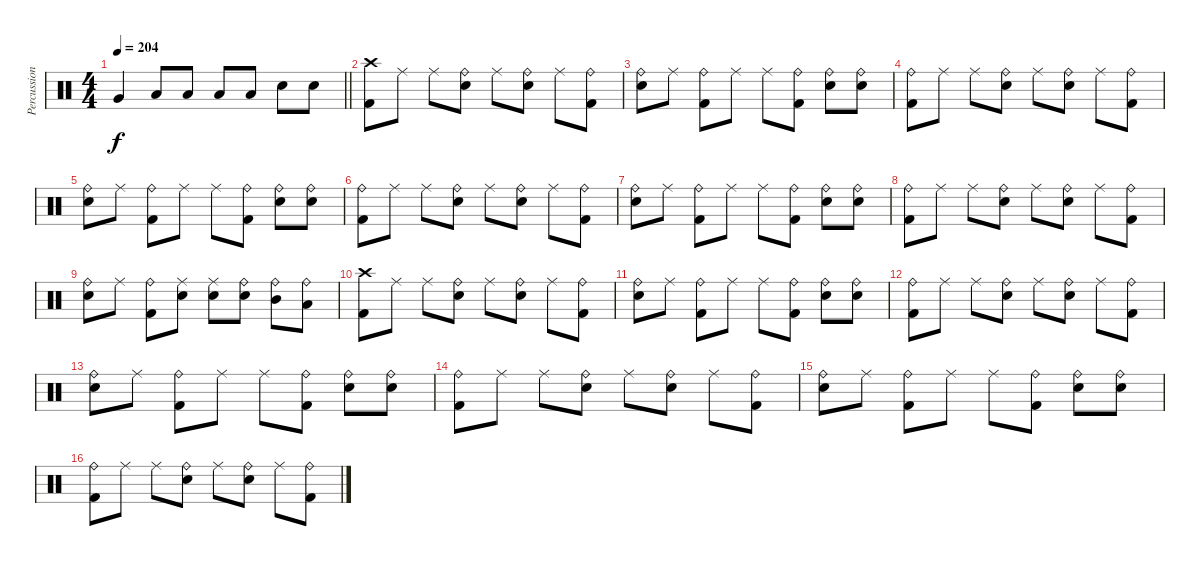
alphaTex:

\track ("Percussion" "Percussion") {instrument percussion}
\staff {score}
\articulation defaults
\ts (4 4)
\tempo 204
\clef neutral
\barLineRight lightlight
\ks c "Very Low Tom (hit)".4{dy f} "Low Floor Tom (hit)".8 "Low Floor Tom (hit)".8 "Low Floor Tom (hit)".8 "Low Floor Tom (hit)".8 "Snare (hit) 2".8 "Snare (hit) 2".8
|
("Crash high (hit)" "Kick (hit) 2").8 "Ride (middle)".8 "Ride (middle)".8 ("Ride (bell)" "Snare (hit) 2").8 "Ride (middle)".8 ("Ride (bell)" "Snare (hit) 2").8 "Ride (middle)".8 ("Ride (bell)" "Kick (hit) 2").8 |
("Ride (bell)" "Snare (hit) 2").8 "Ride (middle)".8 ("Ride (bell)" "Kick (hit) 2").8 "Ride (middle)".8 "Ride (middle)".8 ("Ride (bell)" "Kick (hit) 2").8 ("Ride (bell)" "Snare (hit) 2").8 ("Ride (bell)" "Snare (hit) 2").8 |
("Ride (bell)" "Kick (hit) 2").8 "Ride (middle)".8 "Ride (middle)".8 ("Ride (bell)" "Snare (hit) 2").8 "Ride (middle)".8 ("Ride (bell)" "Snare (hit) 2").8 "Ride (middle)".8 ("Ride (bell)" "Kick (hit) 2").8 |
("Ride (bell)" "Snare (hit) 2").8 "Ride (middle)".8 ("Ride (bell)" "Kick (hit) 2").8 "Ride (middle)".8 "Ride (middle)".8 ("Ride (bell)" "Kick (hit) 2").8 ("Ride (bell)" "Snare (hit) 2").8 ("Ride (bell)" "Snare (hit) 2").8 |
("Ride (bell)" "Kick (hit) 2").8 "Ride (middle)".8 "Ride (middle)".8 ("Ride (bell)" "Snare (hit) 2").8 "Ride (middle)".8 ("Ride (bell)" "Snare (hit) 2").8 "Ride (middle)".8 ("Ride (bell)" "Kick (hit) 2").8 |
("Ride (bell)" "Snare (hit) 2").8 "Ride (middle)".8 ("Ride (bell)" "Kick (hit) 2").8 "Ride (middle)".8 "Ride (middle)".8 ("Ride (bell)" "Kick (hit) 2").8 ("Ride (bell)" "Snare (hit) 2").8 ("Ride (bell)" "Snare (hit) 2").8 |
("Ride (bell)" "Kick (hit) 2").8 "Ride (middle)".8 "Ride (middle)".8 ("Ride (bell)" "Snare (hit) 2").8 "Ride (middle)".8 ("Ride (bell)" "Snare (hit) 2").8 "Ride (middle)".8 ("Ride (bell)" "Kick (hit) 2").8 |
("Ride (bell)" "Snare (hit) 2").8 "Ride (middle)".8 ("Ride (bell)" "Kick (hit) 2").8 ("Ride (middle)" "Snare (hit) 2").8 ("Ride (middle)" "Snare (hit) 2").8 ("Ride (bell)" "Snare (hit) 2").8 ("Ride (bell)" "Mid Tom (hit)").8 ("Ride (bell)" "Low Floor Tom (hit)").8 |
("Crash high (hit)" "Kick (hit) 2").8 "Ride (middle)".8 "Ride (middle)".8 ("Ride (bell)" "Snare (hit) 2").8 "Ride (middle)".8 ("Ride (bell)" "Snare (hit) 2").8 "Ride (middle)".8 ("Ride (bell)" "Kick (hit) 2").8 |
("Ride (bell)" "Snare (hit) 2").8 "Ride (middle)".8 ("Ride (bell)" "Kick (hit) 2").8 "Ride (middle)".8 "Ride (middle)".8 ("Ride (bell)" "Kick (hit) 2").8 ("Ride (bell)" "Snare (hit) 2").8 ("Ride (bell)" "Snare (hit) 2").8 |
("Ride (bell)" "Kick (hit) 2").8 "Ride (middle)".8 "Ride (middle)".8 ("Ride (bell)" "Snare (hit) 2").8 "Ride (middle)".8 ("Ride (bell)" "Snare (hit) 2").8 "Ride (middle)".8 ("Ride (bell)" "Kick (hit) 2").8 |
("Ride (bell)" "Snare (hit) 2").8 "Ride (middle)".8 ("Ride (bell)" "Kick (hit) 2").8 "Ride (middle)".8 "Ride (middle)".8 ("Ride (bell)" "Kick (hit) 2").8 ("Ride (bell)" "Snare (hit) 2").8 ("Ride (bell)" "Snare (hit) 2").8 |
("Ride (bell)" "Kick (hit) 2").8 "Ride (middle)".8 "Ride (middle)".8 ("Ride (bell)" "Snare (hit) 2").8 "Ride (middle)".8 ("Ride (bell)" "Snare (hit) 2").8 "Ride (middle)".8 ("Ride (bell)" "Kick (hit) 2").8 |
("Ride (bell)" "Snare (hit) 2").8 "Ride (middle)".8 ("Ride (bell)" "Kick (hit) 2").8 "Ride (middle)".8 "Ride (middle)".8 ("Ride (bell)" "Kick (hit) 2").8 ("Ride (bell)" "Snare (hit) 2").8 ("Ride (bell)" "Snare (hit) 2").8 |
("Ride (bell)" "Kick (hit) 2").8 "Ride (middle)".8 "Ride (middle)".8 ("Ride (bell)" "Snare (hit) 2").8 "Ride (middle)".8 ("Ride (bell)" "Snare (hit) 2").8 "Ride (middle)".8 ("Ride (bell)" "Kick (hit) 2").8
